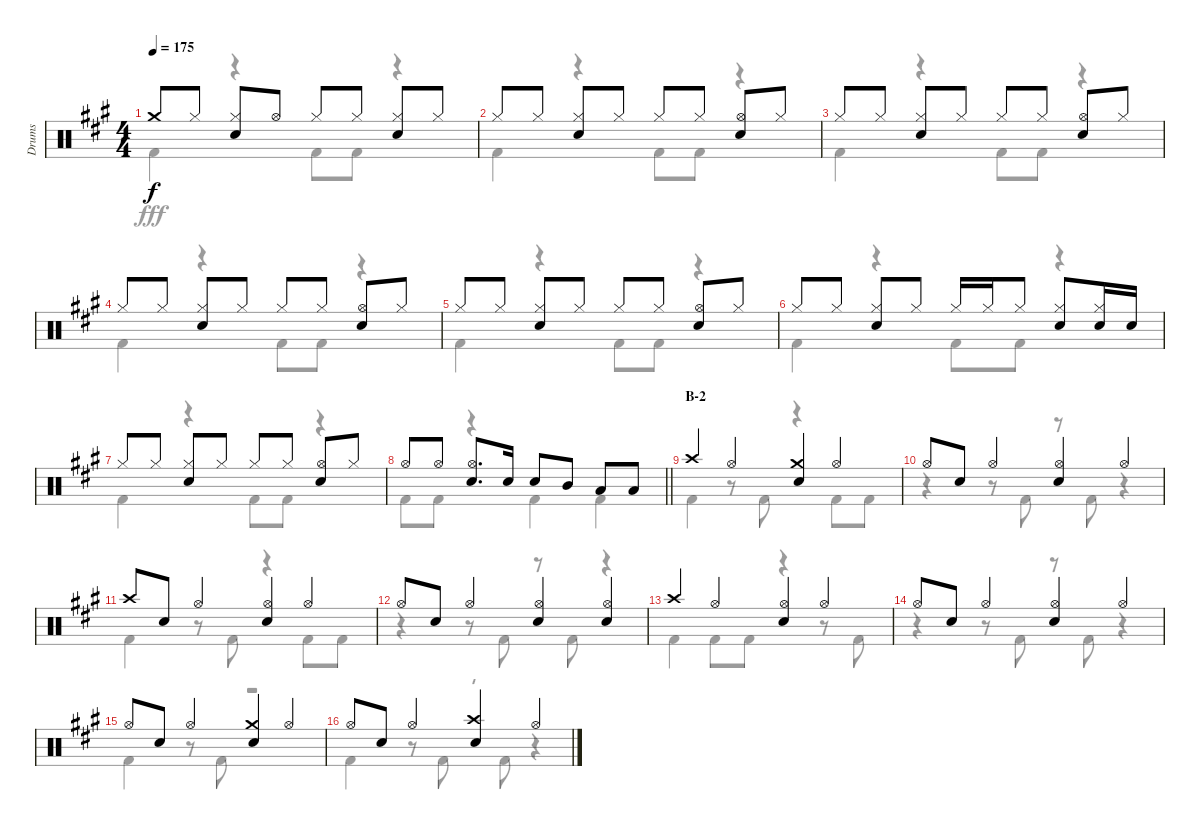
\track ("Drums" "Drums") {instrument percussion}
\staff {score}
\articulation defaults
\voice
\ts (4 4)
\tempo 175
\clef neutral
\ks a "Crash medium (hit)".8{dy f} "Hi-Hat (closed)".8
("Hi-Hat (closed)" "Snare (hit) 2").8 "Hi-Hat (open)".8 "Hi-Hat (closed)".8 "Hi-Hat (closed)".8 ("Hi-Hat (closed)" "Snare (hit) 2").8 "Hi-Hat (closed)".8 |
"Hi-Hat (closed)".8 "Hi-Hat (closed)".8 ("Hi-Hat (closed)" "Snare (hit) 2").8 "Hi-Hat (closed)".8 "Hi-Hat (closed)".8 "Hi-Hat (closed)".8 ("Hi-Hat (open)" "Snare (hit) 2").8 "Hi-Hat (closed)".8 |
"Hi-Hat (closed)".8 "Hi-Hat (closed)".8 ("Hi-Hat (closed)" "Snare (hit) 2").8 "Hi-Hat (closed)".8 "Hi-Hat (closed)".8 "Hi-Hat (closed)".8 ("Hi-Hat (open)" "Snare (hit) 2").8 "Hi-Hat (closed)".8 |
"Hi-Hat (closed)".8 "Hi-Hat (closed)".8 ("Hi-Hat (closed)" "Snare (hit) 2").8 "Hi-Hat (closed)".8 "Hi-Hat (closed)".8 "Hi-Hat (closed)".8 ("Hi-Hat (open)" "Snare (hit) 2").8 "Hi-Hat (closed)".8 |
"Hi-Hat (closed)".8 "Hi-Hat (closed)".8 ("Hi-Hat (closed)" "Snare (hit) 2").8 "Hi-Hat (closed)".8 "Hi-Hat (closed)".8 "Hi-Hat (closed)".8 ("Hi-Hat (open)" "Snare (hit) 2").8 "Hi-Hat (closed)".8 |
"Hi-Hat (closed)".8 "Hi-Hat (closed)".8 ("Hi-Hat (closed)" "Snare (hit) 2").8 "Hi-Hat (closed)".8 "Hi-Hat (closed)".16 "Hi-Hat (closed)".16 "Hi-Hat (closed)".8 ("Hi-Hat (closed)" "Snare (hit) 2").8 ("Hi-Hat (closed)" "Snare (hit) 2").16 "Snare (hit) 2".16 |
"Hi-Hat (closed)".8 "Hi-Hat (closed)".8 ("Hi-Hat (closed)" "Snare (hit) 2").8 "Hi-Hat (closed)".8 "Hi-Hat (closed)".8 "Hi-Hat (closed)".8 ("Hi-Hat (open)" "Snare (hit) 2").8 "Hi-Hat (closed)".8 |
\barLineRight lightlight "Hi-Hat (open)".8 "Hi-Hat (open)".8
("Hi-Hat (open)" "Snare (hit) 2").8{d} "Snare (hit) 2".16 "Snare (hit) 2".8 "Mid Tom (hit)".8 "Low Tom (hit)".8 "Low Tom (hit)".8 |
\section ("" "B-2")
"Crash high (hit)".4 "Hi-Hat (open)".4 ("Crash medium (hit)" "Snare (hit) 2").4 "Hi-Hat (open)".4 |
"Hi-Hat (open)".8 "Snare (hit) 2".8 "Hi-Hat (open)".4 ("Hi-Hat (open)" "Snare (hit) 2").4 "Hi-Hat (open)".4 |
"Crash high (hit)".8 "Snare (hit) 2".8 "Hi-Hat (open)".4 ("Hi-Hat (open)" "Snare (hit) 2").4 "Hi-Hat (open)".4 |
"Hi-Hat (open)".8 "Snare (hit) 2".8 "Hi-Hat (open)".4 ("Hi-Hat (open)" "Snare (hit) 2").4 ("Hi-Hat (open)" "Snare (hit) 2").4 |
"Crash high (hit)".4 "Hi-Hat (open)".4 ("Hi-Hat (open)" "Snare (hit) 2").4 "Hi-Hat (open)".4 |
"Hi-Hat (open)".8 "Snare (hit) 2".8 "Hi-Hat (open)".4 ("Hi-Hat (open)" "Snare (hit) 2").4 "Hi-Hat (open)".4 |
"Hi-Hat (open)".8 "Snare (hit) 2".8 "Hi-Hat (open)".4 ("Crash medium (hit)" "Snare (hit) 2").4 "Hi-Hat (open)".4 |
"Hi-Hat (open)".8 "Snare (hit) 2".8 "Hi-Hat (open)".4 ("Crash high (hit)" "Snare (hit) 2").4 "Hi-Hat (open)".4
\voice
\clef neutral
\ottava regular
\simile none
\ks a "Kick (hit) 2".4{dy fff}
r.4 "Kick (hit) 2".8 "Kick (hit) 2".8 r.4 |
"Kick (hit) 2".4 r.4 "Kick (hit) 2".8 "Kick (hit) 2".8 r.4 |
"Kick (hit) 2".4 r.4 "Kick (hit) 2".8 "Kick (hit) 2".8 r.4 |
"Kick (hit) 2".4 r.4 "Kick (hit) 2".8 "Kick (hit) 2".8 r.4 |
"Kick (hit) 2".4 r.4 "Kick (hit) 2".8 "Kick (hit) 2".8 r.4 |
"Kick (hit) 2".4 r.4 "Kick (hit) 2".8 "Kick (hit) 2".8 r.4 |
"Kick (hit) 2".4 r.4 "Kick (hit) 2".8 "Kick (hit) 2".8 r.4 |
\barLineRight lightlight "Kick (hit) 2".8 "Kick (hit) 2".8
r.4 "Kick (hit) 2".4 "Kick (hit) 2".4 |
"Kick (hit) 2".4 r.8 "Kick (hit) 2".8 r.4 "Kick (hit) 2".8 "Kick (hit) 2".8 |
r.4 r.8 "Kick (hit) 2".8 r.8 "Kick (hit) 2".8 r.4 |
"Kick (hit) 2".4 r.8 "Kick (hit) 2".8 r.4 "Kick (hit) 2".8 "Kick (hit) 2".8 |
r.4 r.8 "Kick (hit) 2".8 r.8 "Kick (hit) 2".8 r.4 |
"Kick (hit) 2".4 "Kick (hit) 2".8 "Kick (hit) 2".8 r.4 r.8 "Kick (hit) 2".8 |
r.4 r.8 "Kick (hit) 2".8 r.8 "Kick (hit) 2".8 r.4 |
"Kick (hit) 2".4 r.8 "Kick (hit) 2".8 r.2 |
"Kick (hit) 2".4 r.8 "Kick (hit) 2".8 r.8 "Kick (hit) 2".8 r.4
